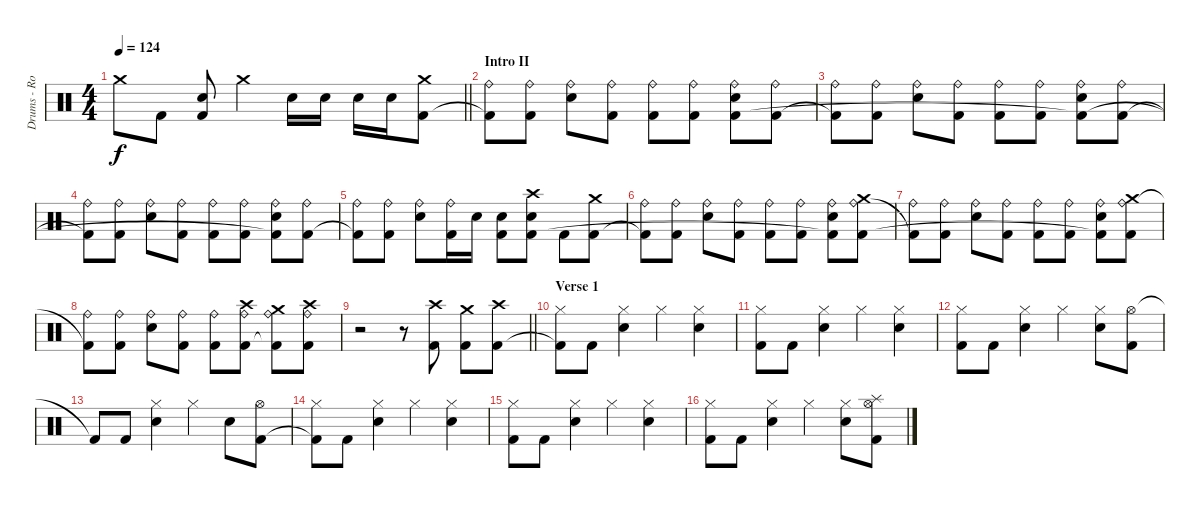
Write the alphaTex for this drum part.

\track ("Drums - Rockenfield" "Drums - Ro") {instrument percussion}
\staff {score}
\articulation defaults
\ts (4 4)
\tempo 124
\clef neutral
\barLineRight lightlight
\ks c "Crash medium (hit)"{t}.8{dy f} "Kick (hit) 2".8
("Snare (hit) 2" "Kick (hit) 2").8 "Crash medium (hit)".4 "Snare (hit) 2".16 "Snare (hit) 2".16 "Snare (hit) 2".16 "Snare (hit) 2".16 ("Crash medium (hit)" "Kick (hit) 2").8 |
\section ("" "Intro II")
("Ride (bell)" "Kick (hit) 2"{t}).8 ("Ride (bell)" "Kick (hit) 2").8 ("Ride (bell)" "Electric Snare (hit)").8 ("Ride (bell)" "Kick (hit) 2").8 ("Ride (bell)" "Kick (hit) 2").8 ("Ride (bell)" "Kick (hit) 2").8 ("Ride (bell)" "Electric Snare (hit)" "Kick (hit) 2"{t}).8 ("Ride (bell)" "Kick (hit) 2").8 |
("Ride (bell)" "Kick (hit) 2"{t}).8 ("Ride (bell)" "Kick (hit) 2").8 ("Ride (bell)" "Electric Snare (hit)").8 ("Ride (bell)" "Kick (hit) 2").8 ("Ride (bell)" "Kick (hit) 2").8 ("Ride (bell)" "Kick (hit) 2").8 ("Ride (bell)" "Electric Snare (hit)" "Kick (hit) 2"{t}).8 ("Ride (bell)" "Kick (hit) 2").8 |
("Ride (bell)" "Kick (hit) 2"{t}).8 ("Ride (bell)" "Kick (hit) 2").8 ("Ride (bell)" "Electric Snare (hit)").8 ("Ride (bell)" "Kick (hit) 2").8 ("Ride (bell)" "Kick (hit) 2").8 ("Ride (bell)" "Kick (hit) 2").8 ("Ride (bell)" "Electric Snare (hit)" "Kick (hit) 2"{t}).8 ("Ride (bell)" "Kick (hit) 2").8 |
("Ride (bell)" "Kick (hit) 2"{t}).8 ("Ride (bell)" "Kick (hit) 2").8 ("Ride (bell)" "Electric Snare (hit)").8 ("Ride (bell)" "Kick (hit) 2").16 "Electric Snare (hit)".16 ("Electric Snare (hit)" "Kick (hit) 2").8 ("Crash high (hit)" "Electric Snare (hit)" "Kick (hit) 2").8 "Kick (hit) 2".8 ("Crash medium (hit)" "Kick (hit) 2").8 |
("Ride (bell)" "Kick (hit) 2"{t}).8 ("Ride (bell)" "Kick (hit) 2").8 ("Ride (bell)" "Electric Snare (hit)").8 ("Ride (bell)" "Kick (hit) 2").8 ("Ride (bell)" "Kick (hit) 2").8 ("Ride (bell)" "Kick (hit) 2").8 ("Ride (bell)" "Electric Snare (hit)" "Kick (hit) 2"{t}).8 ("Crash medium (hit)" "Ride (bell)" "Kick (hit) 2").8 |
("Ride (bell)" "Kick (hit) 2"{t}).8 ("Ride (bell)" "Kick (hit) 2").8 ("Ride (bell)" "Electric Snare (hit)").8 ("Ride (bell)" "Kick (hit) 2").8 ("Ride (bell)" "Kick (hit) 2").8 ("Ride (bell)" "Kick (hit) 2").8 ("Ride (bell)" "Electric Snare (hit)" "Kick (hit) 2"{t}).8 ("Crash medium (hit)" "Ride (bell)" "Kick (hit) 2").8 |
("Ride (bell)" "Kick (hit) 2"{t}).8 ("Ride (bell)" "Kick (hit) 2").8 ("Ride (bell)" "Electric Snare (hit)").8 ("Ride (bell)" "Kick (hit) 2").8 ("Ride (bell)" "Kick (hit) 2").8 ("Crash high (hit)" "Ride (bell)" "Kick (hit) 2").8 ("Crash medium (hit)" "Ride (bell)" "Kick (hit) 2"{t}).8 ("Crash high (hit)" "Ride (bell)" "Kick (hit) 2").8 |
\barLineRight lightlight
r.2 r.8 ("Crash high (hit)" "Kick (hit) 2").8 ("Crash medium (hit)" "Kick (hit) 2").8 ("Crash high (hit)" "Kick (hit) 2").8 |
\section ("" "Verse 1")
("Hi-Hat (closed)" "Kick (hit) 2"{t}).8 "Kick (hit) 2".8 ("Hi-Hat (closed)" "Snare (hit) 2").4 "Hi-Hat (closed)".4 ("Hi-Hat (closed)" "Snare (hit) 2").4 |
("Hi-Hat (closed)" "Kick (hit) 2").8 "Kick (hit) 2".8 ("Hi-Hat (closed)" "Snare (hit) 2").4 "Hi-Hat (closed)".4 ("Hi-Hat (closed)" "Snare (hit) 2").4 |
("Hi-Hat (closed)" "Kick (hit) 2").8 "Kick (hit) 2".8 ("Hi-Hat (closed)" "Snare (hit) 2").4 "Hi-Hat (closed)".4 ("Hi-Hat (closed)" "Snare (hit) 2").8 ("Hi-Hat (open)" "Kick (hit) 2").8 |
"Kick (hit) 2"{t}.8 "Kick (hit) 2".8 ("Hi-Hat (closed)" "Snare (hit) 2").4 "Hi-Hat (closed)".4 "Snare (hit) 2".8 ("Hi-Hat (open)" "Kick (hit) 2").8 |
("Hi-Hat (closed)" "Kick (hit) 2"{t}).8 "Kick (hit) 2".8 ("Hi-Hat (closed)" "Snare (hit) 2").4 "Hi-Hat (closed)".4 ("Hi-Hat (closed)" "Snare (hit) 2").4 |
("Hi-Hat (closed)" "Kick (hit) 2").8 "Kick (hit) 2".8 ("Hi-Hat (closed)" "Snare (hit) 2").4 "Hi-Hat (closed)".4 ("Hi-Hat (closed)" "Snare (hit) 2").4 |
("Hi-Hat (closed)" "Kick (hit) 2").8 "Kick (hit) 2".8 ("Hi-Hat (closed)" "Snare (hit) 2").4 "Hi-Hat (closed)".4 ("Hi-Hat (closed)" "Snare (hit) 2").8 ("Splash (hit)" "Hi-Hat (open)" "Kick (hit) 2").8
